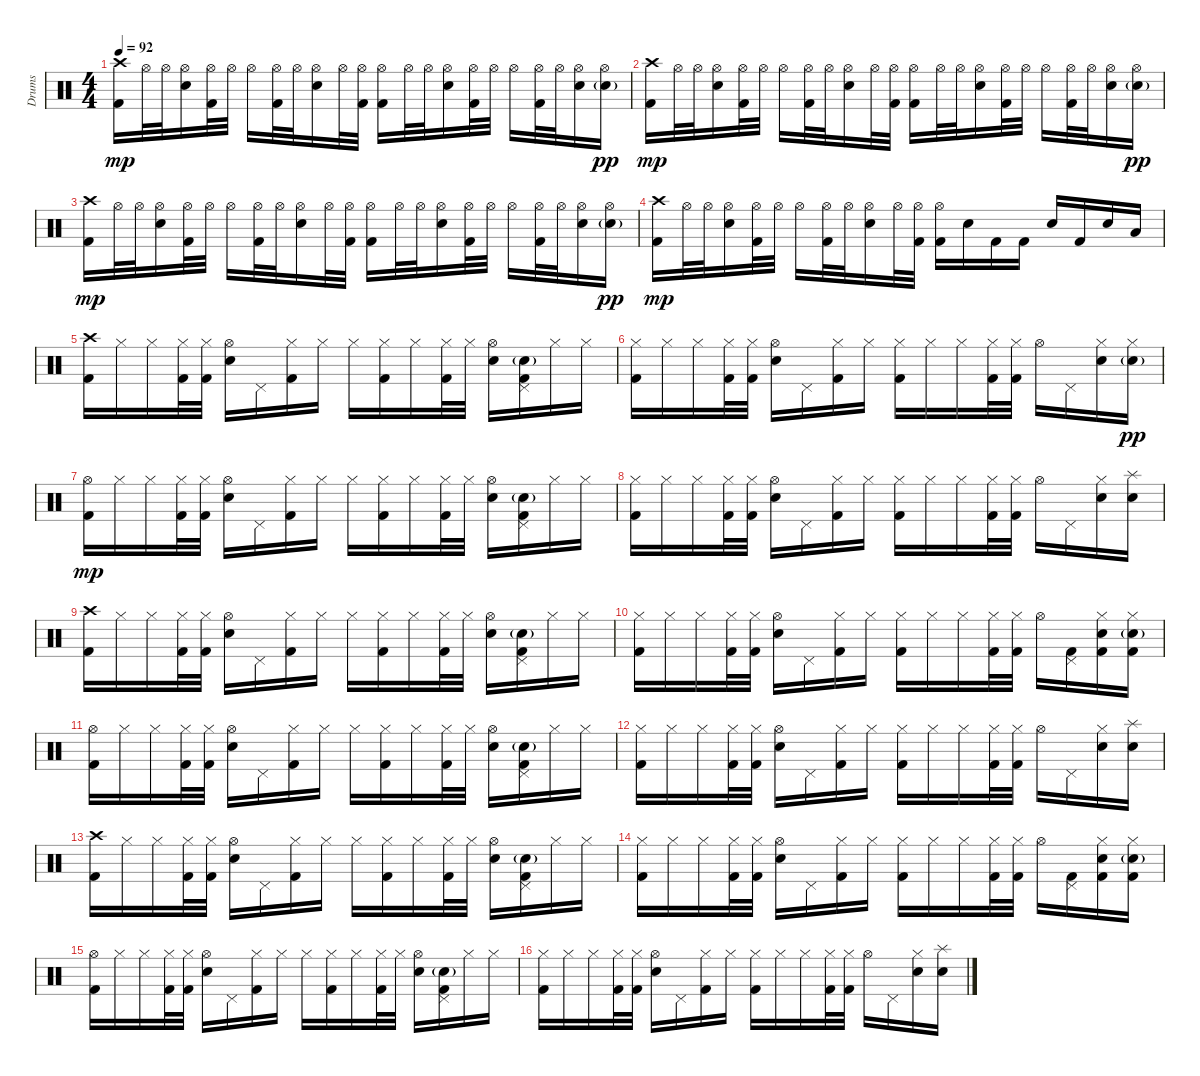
\track ("Drums" "Drums") {instrument percussion}
\staff {score}
\articulation defaults
\ts (4 4)
\tempo 92
\clef neutral
\ks c
("Crash high (hit)" "Kick (hit) 2").16{dy mp} "Hi-Hat (open)".32 "Hi-Hat (open)".32 ("Hi-Hat (open)" "Electric Snare (hit)").16 ("Hi-Hat (open)" "Kick (hit) 2").32 "Hi-Hat (open)".32 "Hi-Hat (open)".16 ("Hi-Hat (open)" "Kick (hit) 2").32 "Hi-Hat (open)".32 ("Hi-Hat (open)" "Electric Snare (hit)").16 "Hi-Hat (open)".32 ("Hi-Hat (open)" "Kick (hit) 2").32 ("Hi-Hat (open)" "Kick (hit) 2").16 "Hi-Hat (open)".32 "Hi-Hat (open)".32 ("Hi-Hat (open)" "Electric Snare (hit)").16 ("Hi-Hat (open)" "Kick (hit) 2").32 "Hi-Hat (open)".32 "Hi-Hat (open)".16 ("Hi-Hat (open)" "Kick (hit) 2").32 "Hi-Hat (open)".32 ("Hi-Hat (open)" "Electric Snare (hit)").16 ("Hi-Hat (open)" "Electric Snare (hit)"{g}).16{dy pp} |
("Crash high (hit)" "Kick (hit) 2").16{dy mp} "Hi-Hat (open)".32 "Hi-Hat (open)".32 ("Hi-Hat (open)" "Electric Snare (hit)").16 ("Hi-Hat (open)" "Kick (hit) 2").32 "Hi-Hat (open)".32 "Hi-Hat (open)".16 ("Hi-Hat (open)" "Kick (hit) 2").32 "Hi-Hat (open)".32 ("Hi-Hat (open)" "Electric Snare (hit)").16 "Hi-Hat (open)".32 ("Hi-Hat (open)" "Kick (hit) 2").32 ("Hi-Hat (open)" "Kick (hit) 2").16 "Hi-Hat (open)".32 "Hi-Hat (open)".32 ("Hi-Hat (open)" "Electric Snare (hit)").16 ("Hi-Hat (open)" "Kick (hit) 2").32 "Hi-Hat (open)".32 "Hi-Hat (open)".16 ("Hi-Hat (open)" "Kick (hit) 2").32 "Hi-Hat (open)".32 ("Hi-Hat (open)" "Electric Snare (hit)").16 ("Hi-Hat (open)" "Electric Snare (hit)"{g}).16{dy pp} |
("Crash high (hit)" "Kick (hit) 2").16{dy mp} "Hi-Hat (open)".32 "Hi-Hat (open)".32 ("Hi-Hat (open)" "Electric Snare (hit)").16 ("Hi-Hat (open)" "Kick (hit) 2").32 "Hi-Hat (open)".32 "Hi-Hat (open)".16 ("Hi-Hat (open)" "Kick (hit) 2").32 "Hi-Hat (open)".32 ("Hi-Hat (open)" "Electric Snare (hit)").16 "Hi-Hat (open)".32 ("Hi-Hat (open)" "Kick (hit) 2").32 ("Hi-Hat (open)" "Kick (hit) 2").16 "Hi-Hat (open)".32 "Hi-Hat (open)".32 ("Hi-Hat (open)" "Electric Snare (hit)").16 ("Hi-Hat (open)" "Kick (hit) 2").32 "Hi-Hat (open)".32 "Hi-Hat (open)".16 ("Hi-Hat (open)" "Kick (hit) 2").32 "Hi-Hat (open)".32 ("Hi-Hat (open)" "Electric Snare (hit)").16 ("Hi-Hat (open)" "Electric Snare (hit)"{g}).16{dy pp} |
("Crash high (hit)" "Kick (hit) 2").16{dy mp} "Hi-Hat (open)".32 "Hi-Hat (open)".32 ("Hi-Hat (open)" "Electric Snare (hit)").16 ("Hi-Hat (open)" "Kick (hit) 2").32 "Hi-Hat (open)".32 "Hi-Hat (open)".16 ("Hi-Hat (open)" "Kick (hit) 2").32 "Hi-Hat (open)".32 ("Hi-Hat (open)" "Electric Snare (hit)").16 "Hi-Hat (open)".32 ("Hi-Hat (open)" "Kick (hit) 2").32 ("Hi-Hat (open)" "Kick (hit) 2").16 "Electric Snare (hit)".16 "Kick (hit) 2".16 "Kick (hit) 2".16 "Electric Snare (hit)".16 "Kick (hit) 2".16 "Electric Snare (hit)".16 "Low Floor Tom (hit)".16 |
("Crash high (hit)" "Kick (hit) 2").16 "Hi-Hat (closed)".16 "Hi-Hat (closed)".16 ("Hi-Hat (closed)" "Kick (hit) 2").32 ("Hi-Hat (closed)" "Kick (hit) 2").32 ("Hi-Hat (open)" "Electric Snare (hit)").16 "Pedal Hi-Hat (hit)".16 ("Hi-Hat (closed)" "Kick (hit) 2").16 "Hi-Hat (closed)".16 "Hi-Hat (closed)".16 ("Hi-Hat (closed)" "Kick (hit) 2").16 "Hi-Hat (closed)".16 ("Hi-Hat (closed)" "Kick (hit) 2").32 "Hi-Hat (closed)".32 ("Hi-Hat (open)" "Electric Snare (hit)").16 ("Pedal Hi-Hat (hit)" "Electric Snare (hit)"{g} "Kick (hit) 2").16 "Hi-Hat (closed)".16 "Hi-Hat (closed)".16 |
("Hi-Hat (closed)" "Kick (hit) 2").16 "Hi-Hat (closed)".16 "Hi-Hat (closed)".16 ("Hi-Hat (closed)" "Kick (hit) 2").32 ("Hi-Hat (closed)" "Kick (hit) 2").32 ("Hi-Hat (open)" "Electric Snare (hit)").16 "Pedal Hi-Hat (hit)".16 ("Hi-Hat (closed)" "Kick (hit) 2").16 "Hi-Hat (closed)".16 ("Hi-Hat (closed)" "Kick (hit) 2").16 "Hi-Hat (closed)".16 "Hi-Hat (closed)".16 ("Hi-Hat (closed)" "Kick (hit) 2").32 ("Hi-Hat (closed)" "Kick (hit) 2").32 "Hi-Hat (open)".16 "Pedal Hi-Hat (hit)".16 ("Hi-Hat (closed)" "Electric Snare (hit)").16 ("Hi-Hat (closed)" "Electric Snare (hit)"{g}).16{dy pp} |
("Hi-Hat (open)" "Kick (hit) 2").16{dy mp} "Hi-Hat (closed)".16 "Hi-Hat (closed)".16 ("Hi-Hat (closed)" "Kick (hit) 2").32 ("Hi-Hat (closed)" "Kick (hit) 2").32 ("Hi-Hat (open)" "Electric Snare (hit)").16 "Pedal Hi-Hat (hit)".16 ("Hi-Hat (closed)" "Kick (hit) 2").16 "Hi-Hat (closed)".16 "Hi-Hat (closed)".16 ("Hi-Hat (closed)" "Kick (hit) 2").16 "Hi-Hat (closed)".16 ("Hi-Hat (closed)" "Kick (hit) 2").32 "Hi-Hat (closed)".32 ("Hi-Hat (open)" "Electric Snare (hit)").16 ("Pedal Hi-Hat (hit)" "Electric Snare (hit)"{g} "Kick (hit) 2").16 "Hi-Hat (closed)".16 "Hi-Hat (closed)".16 |
("Hi-Hat (closed)" "Kick (hit) 2").16 "Hi-Hat (closed)".16 "Hi-Hat (closed)".16 ("Hi-Hat (closed)" "Kick (hit) 2").32 ("Hi-Hat (closed)" "Kick (hit) 2").32 ("Hi-Hat (open)" "Electric Snare (hit)").16 "Pedal Hi-Hat (hit)".16 ("Hi-Hat (closed)" "Kick (hit) 2").16 "Hi-Hat (closed)".16 ("Hi-Hat (closed)" "Kick (hit) 2").16 "Hi-Hat (closed)".16 "Hi-Hat (closed)".16 ("Hi-Hat (closed)" "Kick (hit) 2").32 ("Hi-Hat (closed)" "Kick (hit) 2").32 "Hi-Hat (open)".16 "Pedal Hi-Hat (hit)".16 ("Hi-Hat (closed)" "Electric Snare (hit)").16 ("Splash (hit)" "Electric Snare (hit)").16 |
("Crash high (hit)" "Kick (hit) 2").16 "Hi-Hat (closed)".16 "Hi-Hat (closed)".16 ("Hi-Hat (closed)" "Kick (hit) 2").32 ("Hi-Hat (closed)" "Kick (hit) 2").32 ("Hi-Hat (open)" "Electric Snare (hit)").16 "Pedal Hi-Hat (hit)".16 ("Hi-Hat (closed)" "Kick (hit) 2").16 "Hi-Hat (closed)".16 "Hi-Hat (closed)".16 ("Hi-Hat (closed)" "Kick (hit) 2").16 "Hi-Hat (closed)".16 ("Hi-Hat (closed)" "Kick (hit) 2").32 "Hi-Hat (closed)".32 ("Hi-Hat (open)" "Electric Snare (hit)").16 ("Pedal Hi-Hat (hit)" "Electric Snare (hit)"{g} "Kick (hit) 2").16 "Hi-Hat (closed)".16 "Hi-Hat (closed)".16 |
("Hi-Hat (closed)" "Kick (hit) 2").16 "Hi-Hat (closed)".16 "Hi-Hat (closed)".16 ("Hi-Hat (closed)" "Kick (hit) 2").32 ("Hi-Hat (closed)" "Kick (hit) 2").32 ("Hi-Hat (open)" "Electric Snare (hit)").16 "Pedal Hi-Hat (hit)".16 ("Hi-Hat (closed)" "Kick (hit) 2").16 "Hi-Hat (closed)".16 ("Hi-Hat (closed)" "Kick (hit) 2").16 "Hi-Hat (closed)".16 "Hi-Hat (closed)".16 ("Hi-Hat (closed)" "Kick (hit) 2").32 ("Hi-Hat (closed)" "Kick (hit) 2").32 "Hi-Hat (open)".16 ("Pedal Hi-Hat (hit)" "Kick (hit) 2").16 ("Hi-Hat (closed)" "Electric Snare (hit)" "Kick (hit) 2").16 ("Hi-Hat (closed)" "Electric Snare (hit)"{g} "Kick (hit) 2").16 |
("Hi-Hat (open)" "Kick (hit) 2").16 "Hi-Hat (closed)".16 "Hi-Hat (closed)".16 ("Hi-Hat (closed)" "Kick (hit) 2").32 ("Hi-Hat (closed)" "Kick (hit) 2").32 ("Hi-Hat (open)" "Electric Snare (hit)").16 "Pedal Hi-Hat (hit)".16 ("Hi-Hat (closed)" "Kick (hit) 2").16 "Hi-Hat (closed)".16 "Hi-Hat (closed)".16 ("Hi-Hat (closed)" "Kick (hit) 2").16 "Hi-Hat (closed)".16 ("Hi-Hat (closed)" "Kick (hit) 2").32 "Hi-Hat (closed)".32 ("Hi-Hat (open)" "Electric Snare (hit)").16 ("Pedal Hi-Hat (hit)" "Electric Snare (hit)"{g} "Kick (hit) 2").16 "Hi-Hat (closed)".16 "Hi-Hat (closed)".16 |
("Hi-Hat (closed)" "Kick (hit) 2").16 "Hi-Hat (closed)".16 "Hi-Hat (closed)".16 ("Hi-Hat (closed)" "Kick (hit) 2").32 ("Hi-Hat (closed)" "Kick (hit) 2").32 ("Hi-Hat (open)" "Electric Snare (hit)").16 "Pedal Hi-Hat (hit)".16 ("Hi-Hat (closed)" "Kick (hit) 2").16 "Hi-Hat (closed)".16 ("Hi-Hat (closed)" "Kick (hit) 2").16 "Hi-Hat (closed)".16 "Hi-Hat (closed)".16 ("Hi-Hat (closed)" "Kick (hit) 2").32 ("Hi-Hat (closed)" "Kick (hit) 2").32 "Hi-Hat (open)".16 "Pedal Hi-Hat (hit)".16 ("Hi-Hat (closed)" "Electric Snare (hit)").16 ("Splash (hit)" "Electric Snare (hit)").16 |
("Crash high (hit)" "Kick (hit) 2").16 "Hi-Hat (closed)".16 "Hi-Hat (closed)".16 ("Hi-Hat (closed)" "Kick (hit) 2").32 ("Hi-Hat (closed)" "Kick (hit) 2").32 ("Hi-Hat (open)" "Electric Snare (hit)").16 "Pedal Hi-Hat (hit)".16 ("Hi-Hat (closed)" "Kick (hit) 2").16 "Hi-Hat (closed)".16 "Hi-Hat (closed)".16 ("Hi-Hat (closed)" "Kick (hit) 2").16 "Hi-Hat (closed)".16 ("Hi-Hat (closed)" "Kick (hit) 2").32 "Hi-Hat (closed)".32 ("Hi-Hat (open)" "Electric Snare (hit)").16 ("Pedal Hi-Hat (hit)" "Electric Snare (hit)"{g} "Kick (hit) 2").16 "Hi-Hat (closed)".16 "Hi-Hat (closed)".16 |
("Hi-Hat (closed)" "Kick (hit) 2").16 "Hi-Hat (closed)".16 "Hi-Hat (closed)".16 ("Hi-Hat (closed)" "Kick (hit) 2").32 ("Hi-Hat (closed)" "Kick (hit) 2").32 ("Hi-Hat (open)" "Electric Snare (hit)").16 "Pedal Hi-Hat (hit)".16 ("Hi-Hat (closed)" "Kick (hit) 2").16 "Hi-Hat (closed)".16 ("Hi-Hat (closed)" "Kick (hit) 2").16 "Hi-Hat (closed)".16 "Hi-Hat (closed)".16 ("Hi-Hat (closed)" "Kick (hit) 2").32 ("Hi-Hat (closed)" "Kick (hit) 2").32 "Hi-Hat (open)".16 ("Pedal Hi-Hat (hit)" "Kick (hit) 2").16 ("Hi-Hat (closed)" "Electric Snare (hit)" "Kick (hit) 2").16 ("Hi-Hat (closed)" "Electric Snare (hit)"{g} "Kick (hit) 2").16 |
("Hi-Hat (open)" "Kick (hit) 2").16 "Hi-Hat (closed)".16 "Hi-Hat (closed)".16 ("Hi-Hat (closed)" "Kick (hit) 2").32 ("Hi-Hat (closed)" "Kick (hit) 2").32 ("Hi-Hat (open)" "Electric Snare (hit)").16 "Pedal Hi-Hat (hit)".16 ("Hi-Hat (closed)" "Kick (hit) 2").16 "Hi-Hat (closed)".16 "Hi-Hat (closed)".16 ("Hi-Hat (closed)" "Kick (hit) 2").16 "Hi-Hat (closed)".16 ("Hi-Hat (closed)" "Kick (hit) 2").32 "Hi-Hat (closed)".32 ("Hi-Hat (open)" "Electric Snare (hit)").16 ("Pedal Hi-Hat (hit)" "Electric Snare (hit)"{g} "Kick (hit) 2").16 "Hi-Hat (closed)".16 "Hi-Hat (closed)".16 |
("Hi-Hat (closed)" "Kick (hit) 2").16 "Hi-Hat (closed)".16 "Hi-Hat (closed)".16 ("Hi-Hat (closed)" "Kick (hit) 2").32 ("Hi-Hat (closed)" "Kick (hit) 2").32 ("Hi-Hat (open)" "Electric Snare (hit)").16 "Pedal Hi-Hat (hit)".16 ("Hi-Hat (closed)" "Kick (hit) 2").16 "Hi-Hat (closed)".16 ("Hi-Hat (closed)" "Kick (hit) 2").16 "Hi-Hat (closed)".16 "Hi-Hat (closed)".16 ("Hi-Hat (closed)" "Kick (hit) 2").32 ("Hi-Hat (closed)" "Kick (hit) 2").32 "Hi-Hat (open)".16 "Pedal Hi-Hat (hit)".16 ("Hi-Hat (closed)" "Electric Snare (hit)").16 ("Splash (hit)" "Electric Snare (hit)").16
